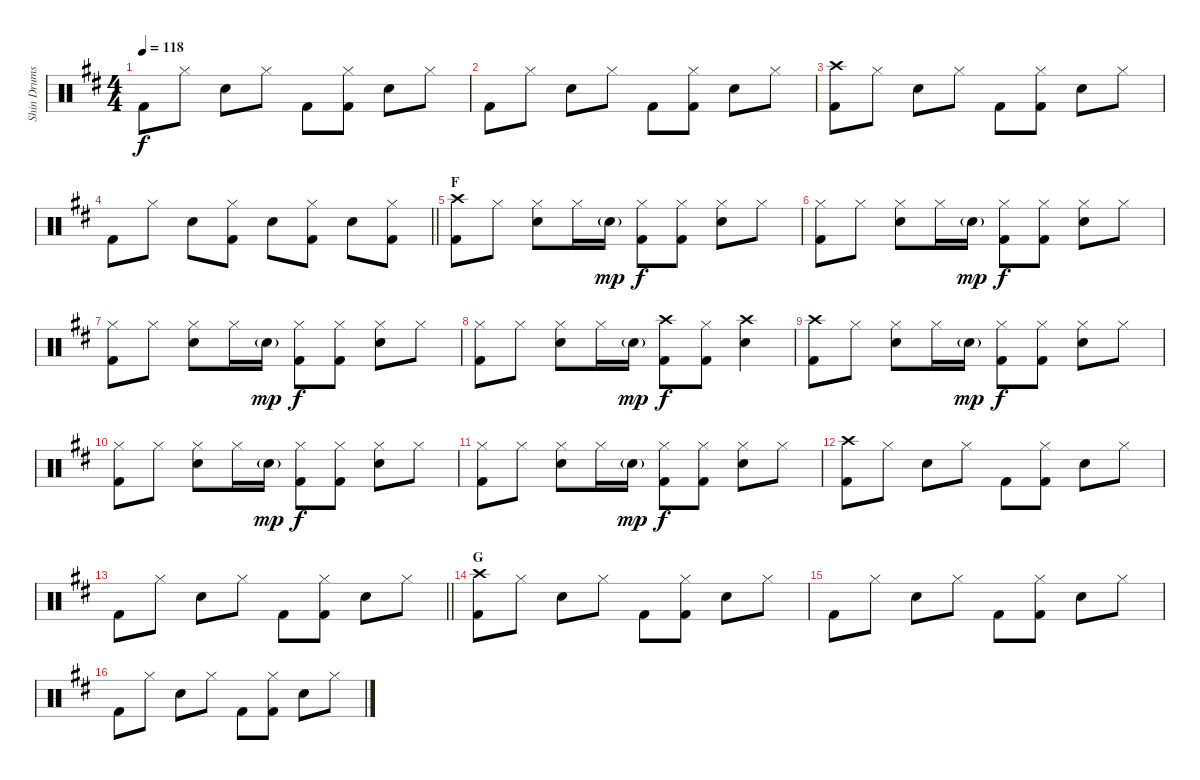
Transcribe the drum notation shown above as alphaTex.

\track ("Shin Drums" "Shin Drums") {instrument percussion}
\staff {score}
\articulation defaults
\ts (4 4)
\tempo 118
\clef neutral
\ks d "Kick (hit) 2".8{dy f} "Hi-Hat (closed)".8 "Snare (hit) 2".8 "Hi-Hat (closed)".8 "Kick (hit) 2".8
("Hi-Hat (closed)" "Kick (hit) 2").8 "Snare (hit) 2".8 "Hi-Hat (closed)".8 |
"Kick (hit) 2".8 "Hi-Hat (closed)".8 "Snare (hit) 2".8 "Hi-Hat (closed)".8 "Kick (hit) 2".8 ("Hi-Hat (closed)" "Kick (hit) 2").8 "Snare (hit) 2".8 "Hi-Hat (closed)".8 |
("Crash high (hit)" "Kick (hit) 2").8 "Hi-Hat (closed)".8 "Snare (hit) 2".8 "Hi-Hat (closed)".8 "Kick (hit) 2".8 ("Hi-Hat (closed)" "Kick (hit) 2").8 "Snare (hit) 2".8 "Hi-Hat (closed)".8 |
\barLineRight lightlight "Kick (hit) 2".8 "Hi-Hat (closed)".8 "Snare (hit) 2".8
("Hi-Hat (closed)" "Kick (hit) 2").8 "Snare (hit) 2".8 ("Hi-Hat (closed)" "Kick (hit) 2").8 "Snare (hit) 2".8 ("Hi-Hat (closed)" "Kick (hit) 2").8 |
\section ("" "F")
("Crash high (hit)" "Kick (hit) 2").8 "Hi-Hat (closed)".8 ("Hi-Hat (closed)" "Snare (hit) 2").8 "Hi-Hat (closed)".16 "Snare (hit) 2"{g}.16{dy mp} ("Hi-Hat (closed)" "Kick (hit) 2").8{dy f} ("Hi-Hat (closed)" "Kick (hit) 2").8 ("Hi-Hat (closed)" "Snare (hit) 2").8 "Hi-Hat (closed)".8 |
("Hi-Hat (closed)" "Kick (hit) 2").8 "Hi-Hat (closed)".8 ("Hi-Hat (closed)" "Snare (hit) 2").8 "Hi-Hat (closed)".16 "Snare (hit) 2"{g}.16{dy mp} ("Hi-Hat (closed)" "Kick (hit) 2").8{dy f} ("Hi-Hat (closed)" "Kick (hit) 2").8 ("Hi-Hat (closed)" "Snare (hit) 2").8 "Hi-Hat (closed)".8 |
("Hi-Hat (closed)" "Kick (hit) 2").8 "Hi-Hat (closed)".8 ("Hi-Hat (closed)" "Snare (hit) 2").8 "Hi-Hat (closed)".16 "Snare (hit) 2"{g}.16{dy mp} ("Hi-Hat (closed)" "Kick (hit) 2").8{dy f} ("Hi-Hat (closed)" "Kick (hit) 2").8 ("Hi-Hat (closed)" "Snare (hit) 2").8 "Hi-Hat (closed)".8 |
("Hi-Hat (closed)" "Kick (hit) 2").8 "Hi-Hat (closed)".8 ("Hi-Hat (closed)" "Snare (hit) 2").8 "Hi-Hat (closed)".16 "Snare (hit) 2"{g}.16{dy mp} ("Crash high (hit)" "Kick (hit) 2").8{dy f} ("Hi-Hat (closed)" "Kick (hit) 2").8 ("Crash high (hit)" "Snare (hit) 2").4 |
("Crash high (hit)" "Kick (hit) 2").8 "Hi-Hat (closed)".8 ("Hi-Hat (closed)" "Snare (hit) 2").8 "Hi-Hat (closed)".16 "Snare (hit) 2"{g}.16{dy mp} ("Hi-Hat (closed)" "Kick (hit) 2").8{dy f} ("Hi-Hat (closed)" "Kick (hit) 2").8 ("Hi-Hat (closed)" "Snare (hit) 2").8 "Hi-Hat (closed)".8 |
("Hi-Hat (closed)" "Kick (hit) 2").8 "Hi-Hat (closed)".8 ("Hi-Hat (closed)" "Snare (hit) 2").8 "Hi-Hat (closed)".16 "Snare (hit) 2"{g}.16{dy mp} ("Hi-Hat (closed)" "Kick (hit) 2").8{dy f} ("Hi-Hat (closed)" "Kick (hit) 2").8 ("Hi-Hat (closed)" "Snare (hit) 2").8 "Hi-Hat (closed)".8 |
("Hi-Hat (closed)" "Kick (hit) 2").8 "Hi-Hat (closed)".8 ("Hi-Hat (closed)" "Snare (hit) 2").8 "Hi-Hat (closed)".16 "Snare (hit) 2"{g}.16{dy mp} ("Hi-Hat (closed)" "Kick (hit) 2").8{dy f} ("Hi-Hat (closed)" "Kick (hit) 2").8 ("Hi-Hat (closed)" "Snare (hit) 2").8 "Hi-Hat (closed)".8 |
("Crash high (hit)" "Kick (hit) 2").8 "Hi-Hat (closed)".8 "Snare (hit) 2".8 "Hi-Hat (closed)".8 "Kick (hit) 2".8 ("Hi-Hat (closed)" "Kick (hit) 2").8 "Snare (hit) 2".8 "Hi-Hat (closed)".8 |
\barLineRight lightlight "Kick (hit) 2".8 "Hi-Hat (closed)".8 "Snare (hit) 2".8 "Hi-Hat (closed)".8 "Kick (hit) 2".8
("Hi-Hat (closed)" "Kick (hit) 2").8 "Snare (hit) 2".8 "Hi-Hat (closed)".8 |
\section ("" "G")
("Crash high (hit)" "Kick (hit) 2").8 "Hi-Hat (closed)".8 "Snare (hit) 2".8 "Hi-Hat (closed)".8 "Kick (hit) 2".8 ("Hi-Hat (closed)" "Kick (hit) 2").8 "Snare (hit) 2".8 "Hi-Hat (closed)".8 |
"Kick (hit) 2".8 "Hi-Hat (closed)".8 "Snare (hit) 2".8 "Hi-Hat (closed)".8 "Kick (hit) 2".8 ("Hi-Hat (closed)" "Kick (hit) 2").8 "Snare (hit) 2".8 "Hi-Hat (closed)".8 |
"Kick (hit) 2".8 "Hi-Hat (closed)".8 "Snare (hit) 2".8 "Hi-Hat (closed)".8 "Kick (hit) 2".8 ("Hi-Hat (closed)" "Kick (hit) 2").8 "Snare (hit) 2".8 "Hi-Hat (closed)".8
